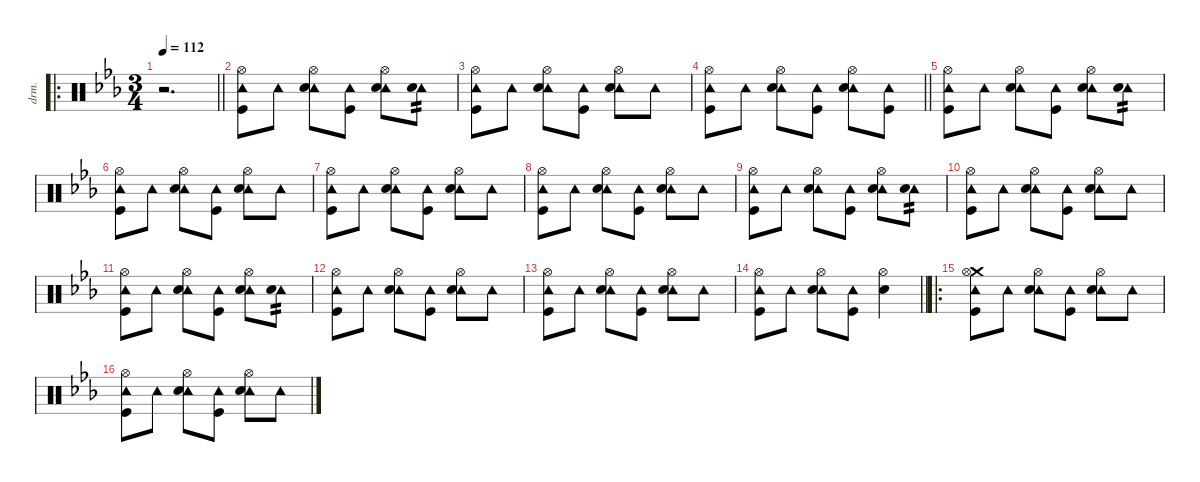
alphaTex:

\defaultSystemsLayout 4
\hideDynamics
\bracketExtendMode nobrackets
\otherSystemsTrackNameOrientation horizontal
\track ("Drums" "drm.") {defaultSystemsLayout 4 instrument percussion}
\staff {score}
\articulation defaults
\ro
\ts (3 4)
\beaming (8 2 2 2)
\ac
\tempo 112
\clef neutral
\barLineRight lightlight
\ks eb
r.2{d dy pp beam Down} |
("Tambourine (hit)"{acc forcenatural} "Hi-Hat (open)"{acc forcenatural} "Kick (hit)"{acc forcenatural}).8{beam Down} "Tambourine (hit)"{acc forcenatural}.8{beam Down} ("Tambourine (hit)"{acc forcenatural} "Hi-Hat (open)"{acc forcenatural} "Snare (hit) 2"{acc forcenatural}).8{beam Down} ("Tambourine (hit)"{acc forcenatural} "Kick (hit)"{acc forcenatural}).8{beam Down} ("Tambourine (hit)"{acc forcenatural} "Hi-Hat (open)"{acc forcenatural} "Snare (hit) 2"{acc forcenatural}).8{beam Down} ("Tambourine (hit)"{acc forcenatural} "Snare (hit) 2"{acc forcenatural}).8{tp 2 beam Down} |
("Tambourine (hit)"{acc forcenatural} "Hi-Hat (open)"{acc forcenatural} "Kick (hit)"{acc forcenatural}).8{dy p beam Down} "Tambourine (hit)"{acc forcenatural}.8{dy pp beam Down} ("Tambourine (hit)"{acc forcenatural} "Hi-Hat (open)"{acc forcenatural} "Snare (hit) 2"{acc forcenatural}).8{beam Down} ("Tambourine (hit)"{acc forcenatural} "Kick (hit)"{acc forcenatural}).8{beam Down} ("Tambourine (hit)"{acc forcenatural} "Hi-Hat (open)"{acc forcenatural} "Snare (hit) 2"{acc forcenatural}).8{beam Down} "Tambourine (hit)"{acc forcenatural}.8{beam Down} |
\barLineRight lightlight
("Tambourine (hit)"{acc forcenatural} "Hi-Hat (open)"{acc forcenatural} "Kick (hit)"{acc forcenatural}).8{beam Down} "Tambourine (hit)"{acc forcenatural}.8{beam Down} ("Tambourine (hit)"{acc forcenatural} "Hi-Hat (open)"{acc forcenatural} "Snare (hit) 2"{acc forcenatural}).8{beam Down} ("Tambourine (hit)"{acc forcenatural} "Kick (hit)"{acc forcenatural}).8{beam Down} ("Tambourine (hit)"{acc forcenatural} "Hi-Hat (open)"{acc forcenatural} "Snare (hit) 2"{acc forcenatural}).8{beam Down} ("Tambourine (hit)"{acc forcenatural} "Kick (hit)"{acc forcenatural}).8{beam Down} |
("Tambourine (hit)"{acc forcenatural} "Hi-Hat (open)"{acc forcenatural} "Kick (hit)"{acc forcenatural}).8{dy p beam Down} "Tambourine (hit)"{acc forcenatural}.8{dy pp beam Down} ("Tambourine (hit)"{acc forcenatural} "Hi-Hat (open)"{acc forcenatural} "Snare (hit) 2"{acc forcenatural}).8{beam Down} ("Tambourine (hit)"{acc forcenatural} "Kick (hit)"{acc forcenatural}).8{beam Down} ("Tambourine (hit)"{acc forcenatural} "Hi-Hat (open)"{acc forcenatural} "Snare (hit) 2"{acc forcenatural}).8{beam Down} ("Tambourine (hit)"{acc forcenatural} "Snare (hit) 2"{acc forcenatural}).8{tp 2 beam Down} |
("Tambourine (hit)"{acc forcenatural} "Hi-Hat (open)"{acc forcenatural} "Kick (hit)"{acc forcenatural}).8{dy p beam Down} "Tambourine (hit)"{acc forcenatural}.8{dy pp beam Down} ("Tambourine (hit)"{acc forcenatural} "Hi-Hat (open)"{acc forcenatural} "Snare (hit) 2"{acc forcenatural}).8{beam Down} ("Tambourine (hit)"{acc forcenatural} "Kick (hit)"{acc forcenatural}).8{beam Down} ("Tambourine (hit)"{acc forcenatural} "Hi-Hat (open)"{acc forcenatural} "Snare (hit) 2"{acc forcenatural}).8{beam Down} "Tambourine (hit)"{acc forcenatural}.8{beam Down} |
("Tambourine (hit)"{acc forcenatural} "Hi-Hat (open)"{acc forcenatural} "Kick (hit)"{acc forcenatural}).8{dy p beam Down} "Tambourine (hit)"{acc forcenatural}.8{dy pp beam Down} ("Tambourine (hit)"{acc forcenatural} "Hi-Hat (open)"{acc forcenatural} "Snare (hit) 2"{acc forcenatural}).8{beam Down} ("Tambourine (hit)"{acc forcenatural} "Kick (hit)"{acc forcenatural}).8{beam Down} ("Tambourine (hit)"{acc forcenatural} "Hi-Hat (open)"{acc forcenatural} "Snare (hit) 2"{acc forcenatural}).8{beam Down} "Tambourine (hit)"{acc forcenatural}.8{beam Down} |
("Tambourine (hit)"{acc forcenatural} "Hi-Hat (open)"{acc forcenatural} "Kick (hit)"{acc forcenatural}).8{dy p beam Down} "Tambourine (hit)"{acc forcenatural}.8{dy pp beam Down} ("Tambourine (hit)"{acc forcenatural} "Hi-Hat (open)"{acc forcenatural} "Snare (hit) 2"{acc forcenatural}).8{beam Down} ("Tambourine (hit)"{acc forcenatural} "Kick (hit)"{acc forcenatural}).8{beam Down} ("Tambourine (hit)"{acc forcenatural} "Hi-Hat (open)"{acc forcenatural} "Snare (hit) 2"{acc forcenatural}).8{beam Down} "Tambourine (hit)"{acc forcenatural}.8{beam Down} |
("Tambourine (hit)"{acc forcenatural} "Hi-Hat (open)"{acc forcenatural} "Kick (hit)"{acc forcenatural}).8{dy p beam Down} "Tambourine (hit)"{acc forcenatural}.8{dy pp beam Down} ("Tambourine (hit)"{acc forcenatural} "Hi-Hat (open)"{acc forcenatural} "Snare (hit) 2"{acc forcenatural}).8{beam Down} ("Tambourine (hit)"{acc forcenatural} "Kick (hit)"{acc forcenatural}).8{beam Down} ("Tambourine (hit)"{acc forcenatural} "Hi-Hat (open)"{acc forcenatural} "Snare (hit) 2"{acc forcenatural}).8{beam Down} ("Tambourine (hit)"{acc forcenatural} "Snare (hit) 2"{acc forcenatural}).8{tp 2 beam Down} |
("Tambourine (hit)"{acc forcenatural} "Hi-Hat (open)"{acc forcenatural} "Kick (hit)"{acc forcenatural}).8{dy p beam Down} "Tambourine (hit)"{acc forcenatural}.8{dy pp beam Down} ("Tambourine (hit)"{acc forcenatural} "Hi-Hat (open)"{acc forcenatural} "Snare (hit) 2"{acc forcenatural}).8{beam Down} ("Tambourine (hit)"{acc forcenatural} "Kick (hit)"{acc forcenatural}).8{beam Down} ("Tambourine (hit)"{acc forcenatural} "Hi-Hat (open)"{acc forcenatural} "Snare (hit) 2"{acc forcenatural}).8{beam Down} "Tambourine (hit)"{acc forcenatural}.8{beam Down} |
("Tambourine (hit)"{acc forcenatural} "Hi-Hat (open)"{acc forcenatural} "Kick (hit)"{acc forcenatural}).8{dy p beam Down} "Tambourine (hit)"{acc forcenatural}.8{dy pp beam Down} ("Tambourine (hit)"{acc forcenatural} "Hi-Hat (open)"{acc forcenatural} "Snare (hit) 2"{acc forcenatural}).8{beam Down} ("Tambourine (hit)"{acc forcenatural} "Kick (hit)"{acc forcenatural}).8{beam Down} ("Tambourine (hit)"{acc forcenatural} "Hi-Hat (open)"{acc forcenatural} "Snare (hit) 2"{acc forcenatural}).8{beam Down} ("Tambourine (hit)"{acc forcenatural} "Snare (hit) 2"{acc forcenatural}).8{tp 2 beam Down} |
("Tambourine (hit)"{acc forcenatural} "Hi-Hat (open)"{acc forcenatural} "Kick (hit)"{acc forcenatural}).8{dy p beam Down} "Tambourine (hit)"{acc forcenatural}.8{dy pp beam Down} ("Tambourine (hit)"{acc forcenatural} "Hi-Hat (open)"{acc forcenatural} "Snare (hit) 2"{acc forcenatural}).8{beam Down} ("Tambourine (hit)"{acc forcenatural} "Kick (hit)"{acc forcenatural}).8{beam Down} ("Tambourine (hit)"{acc forcenatural} "Hi-Hat (open)"{acc forcenatural} "Snare (hit) 2"{acc forcenatural}).8{beam Down} "Tambourine (hit)"{acc forcenatural}.8{beam Down} |
("Tambourine (hit)"{acc forcenatural} "Hi-Hat (open)"{acc forcenatural} "Kick (hit)"{acc forcenatural}).8{dy p beam Down} "Tambourine (hit)"{acc forcenatural}.8{dy pp beam Down} ("Tambourine (hit)"{acc forcenatural} "Hi-Hat (open)"{acc forcenatural} "Snare (hit) 2"{acc forcenatural}).8{beam Down} ("Tambourine (hit)"{acc forcenatural} "Kick (hit)"{acc forcenatural}).8{beam Down} ("Tambourine (hit)"{acc forcenatural} "Hi-Hat (open)"{acc forcenatural} "Snare (hit) 2"{acc forcenatural}).8{beam Down} "Tambourine (hit)"{acc forcenatural}.8{beam Down} |
\barLineRight lightlight
("Tambourine (hit)"{acc forcenatural} "Hi-Hat (open)"{acc forcenatural} "Kick (hit)"{acc forcenatural}).8{dy p beam Down} "Tambourine (hit)"{acc forcenatural}.8{dy pp beam Down} ("Tambourine (hit)"{acc forcenatural} "Hi-Hat (open)"{acc forcenatural} "Snare (hit) 2"{acc forcenatural}).8{beam Down} ("Tambourine (hit)"{acc forcenatural} "Kick (hit)"{acc forcenatural}).8{beam Down} ("Hi-Hat (open)"{acc forcenatural} "Snare (hit) 2"{acc forcenatural}).4{dy f beam Down} |
\ro
("Crash medium (hit)"{acc forcenatural} "Tambourine (hit)"{acc forcenatural} "Hi-Hat (open)"{acc forcenatural} "Kick (hit)"{acc forcenatural}).8{beam Down} "Tambourine (hit)"{acc forcenatural}.8{dy pp beam Down} ("Tambourine (hit)"{acc forcenatural} "Hi-Hat (open)"{acc forcenatural} "Snare (hit) 2"{acc forcenatural}).8{beam Down} ("Tambourine (hit)"{acc forcenatural} "Kick (hit)"{acc forcenatural}).8{beam Down} ("Tambourine (hit)"{acc forcenatural} "Hi-Hat (open)"{acc forcenatural} "Snare (hit) 2"{acc forcenatural}).8{beam Down} "Tambourine (hit)"{acc forcenatural}.8{beam Down} |
("Tambourine (hit)"{acc forcenatural} "Hi-Hat (open)"{acc forcenatural} "Kick (hit)"{acc forcenatural}).8{dy p beam Down} "Tambourine (hit)"{acc forcenatural}.8{dy pp beam Down} ("Tambourine (hit)"{acc forcenatural} "Hi-Hat (open)"{acc forcenatural} "Snare (hit) 2"{acc forcenatural}).8{beam Down} ("Tambourine (hit)"{acc forcenatural} "Kick (hit)"{acc forcenatural}).8{beam Down} ("Tambourine (hit)"{acc forcenatural} "Hi-Hat (open)"{acc forcenatural} "Snare (hit) 2"{acc forcenatural}).8{beam Down} "Tambourine (hit)"{acc forcenatural}.8{beam Down}
